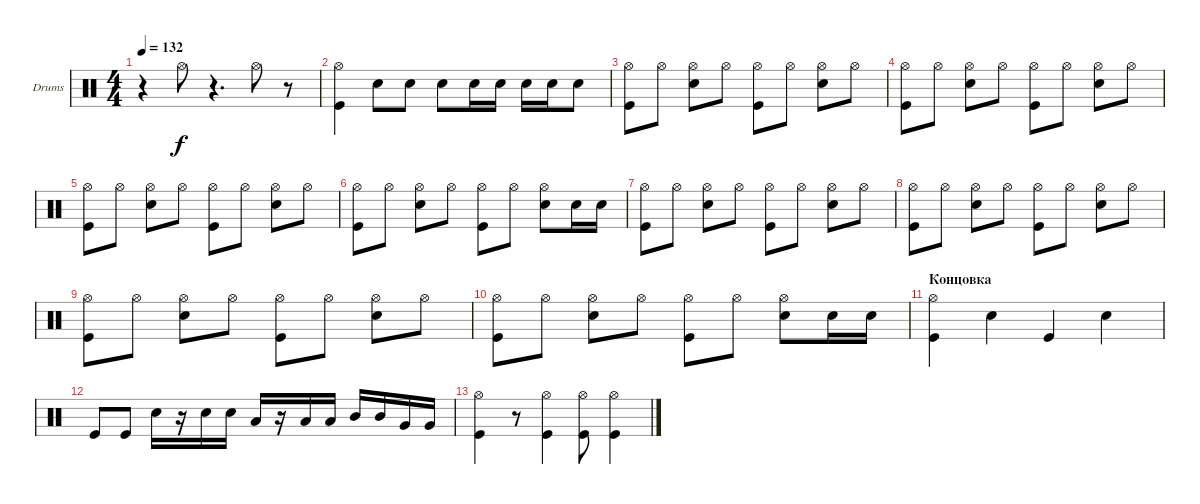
\bracketExtendMode groupsimilarinstruments
\firstSystemTrackNameOrientation horizontal
\otherSystemsTrackNameOrientation horizontal
\track ("Александр Львов" "Drums") {instrument percussion}
\staff {score}
\articulation defaults
\ts (4 4)
\tempo 132
\clef neutral
\ks c
r.4{dy f} "Hi-Hat (open)".8 r.4{d} "Hi-Hat (open)".8 r.8 |
("Hi-Hat (open)" "Kick (hit)").4 "Snare (hit) 2".8 "Snare (hit) 2".8 "Snare (hit) 2".8 "Snare (hit) 2".16 "Snare (hit) 2".16 "Snare (hit) 2".16 "Snare (hit) 2".16 "Snare (hit) 2".8 |
("Hi-Hat (open)" "Kick (hit)").8 "Hi-Hat (open)".8 ("Hi-Hat (open)" "Snare (hit) 2").8 "Hi-Hat (open)".8 ("Hi-Hat (open)" "Kick (hit)").8 "Hi-Hat (open)".8 ("Hi-Hat (open)" "Snare (hit) 2").8 "Hi-Hat (open)".8 |
("Hi-Hat (open)" "Kick (hit)").8 "Hi-Hat (open)".8 ("Hi-Hat (open)" "Snare (hit) 2").8 "Hi-Hat (open)".8 ("Hi-Hat (open)" "Kick (hit)").8 "Hi-Hat (open)".8 ("Hi-Hat (open)" "Snare (hit) 2").8 "Hi-Hat (open)".8 |
("Hi-Hat (open)" "Kick (hit)").8 "Hi-Hat (open)".8 ("Hi-Hat (open)" "Snare (hit) 2").8 "Hi-Hat (open)".8 ("Hi-Hat (open)" "Kick (hit)").8 "Hi-Hat (open)".8 ("Hi-Hat (open)" "Snare (hit) 2").8 "Hi-Hat (open)".8 |
("Hi-Hat (open)" "Kick (hit)").8 "Hi-Hat (open)".8 ("Hi-Hat (open)" "Snare (hit) 2").8 "Hi-Hat (open)".8 ("Hi-Hat (open)" "Kick (hit)").8 "Hi-Hat (open)".8 ("Hi-Hat (open)" "Snare (hit) 2").8 "Snare (hit) 2".16 "Snare (hit) 2".16 |
("Hi-Hat (open)" "Kick (hit)").8 "Hi-Hat (open)".8 ("Hi-Hat (open)" "Snare (hit) 2").8 "Hi-Hat (open)".8 ("Hi-Hat (open)" "Kick (hit)").8 "Hi-Hat (open)".8 ("Hi-Hat (open)" "Snare (hit) 2").8 "Hi-Hat (open)".8 |
("Hi-Hat (open)" "Kick (hit)").8 "Hi-Hat (open)".8 ("Hi-Hat (open)" "Snare (hit) 2").8 "Hi-Hat (open)".8 ("Hi-Hat (open)" "Kick (hit)").8 "Hi-Hat (open)".8 ("Hi-Hat (open)" "Snare (hit) 2").8 "Hi-Hat (open)".8 |
("Hi-Hat (open)" "Kick (hit)").8 "Hi-Hat (open)".8 ("Hi-Hat (open)" "Snare (hit) 2").8 "Hi-Hat (open)".8 ("Hi-Hat (open)" "Kick (hit)").8 "Hi-Hat (open)".8 ("Hi-Hat (open)" "Snare (hit) 2").8 "Hi-Hat (open)".8 |
("Hi-Hat (open)" "Kick (hit)").8 "Hi-Hat (open)".8 ("Hi-Hat (open)" "Snare (hit) 2").8 "Hi-Hat (open)".8 ("Hi-Hat (open)" "Kick (hit)").8 "Hi-Hat (open)".8 ("Hi-Hat (open)" "Snare (hit) 2").8 "Snare (hit) 2".16 "Snare (hit) 2".16 |
\section ("" "Концовка")
("Kick (hit)" "Hi-Hat (open)").4 "Snare (hit) 2".4 "Kick (hit)".4 "Snare (hit) 2".4 |
"Kick (hit)".8 "Kick (hit)".8 "Snare (hit) 2".16 r.16 "Snare (hit) 2".16 "Snare (hit) 2".16 "Low Tom (hit)".16 r.16 "Low Tom (hit)".16 "Low Tom (hit)".16 "Mid Tom (hit)".16 "Mid Tom (hit)".16 "Very Low Tom (hit)".16 "Very Low Tom (hit)".16 |
("Kick (hit)" "Hi-Hat (open)").4 r.8 ("Kick (hit)" "Hi-Hat (open)").4 ("Hi-Hat (open)" "Kick (hit)").8 ("Kick (hit)" "Hi-Hat (open)").4
